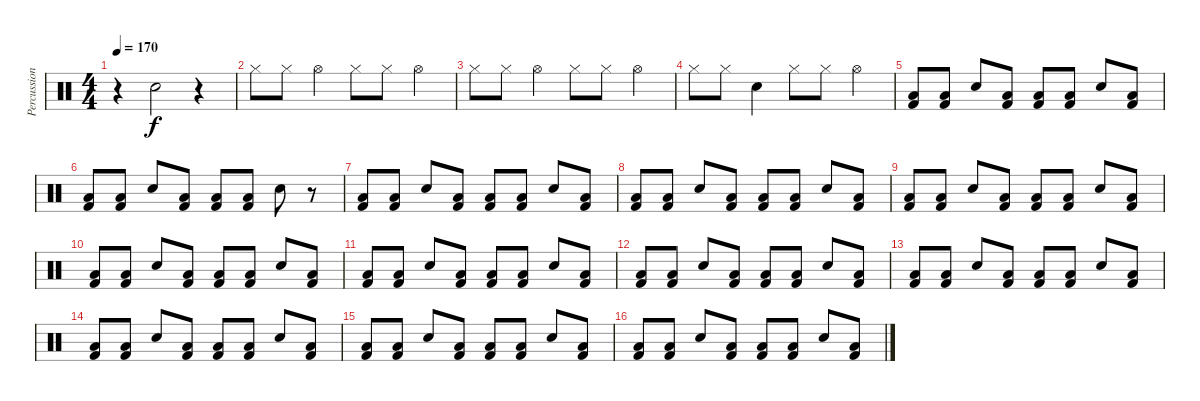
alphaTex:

\track ("Percussion" "Percussion") {instrument percussion}
\staff {score}
\articulation defaults
\ts (4 4)
\tempo 170
\clef neutral
\ks c
r.4{dy f} "Electric Snare (hit)".2 r.4 |
"Hi-Hat (closed)".8 "Hi-Hat (closed)".8 "Hi-Hat (open)".4 "Hi-Hat (closed)".8 "Hi-Hat (closed)".8 "Hi-Hat (open)".4 |
"Hi-Hat (closed)".8 "Hi-Hat (closed)".8 "Hi-Hat (open)".4 "Hi-Hat (closed)".8 "Hi-Hat (closed)".8 "Hi-Hat (open)".4 |
"Hi-Hat (closed)".8 "Hi-Hat (closed)".8 "Electric Snare (hit)".4 "Hi-Hat (closed)".8 "Hi-Hat (closed)".8 "Hi-Hat (open)".4 |
("Low Floor Tom (hit)" "Kick (hit) 2").8 ("Low Floor Tom (hit)" "Kick (hit) 2").8 "Snare (hit) 2".8 ("Low Floor Tom (hit)" "Kick (hit) 2").8 ("Low Floor Tom (hit)" "Kick (hit) 2").8 ("Low Floor Tom (hit)" "Kick (hit) 2").8 "Snare (hit) 2".8 ("Low Floor Tom (hit)" "Kick (hit) 2").8 |
("Low Floor Tom (hit)" "Kick (hit) 2").8 ("Low Floor Tom (hit)" "Kick (hit) 2").8 "Snare (hit) 2".8 ("Low Floor Tom (hit)" "Kick (hit) 2").8 ("Low Floor Tom (hit)" "Kick (hit) 2").8 ("Low Floor Tom (hit)" "Kick (hit) 2").8 "Snare (hit) 2".8 r.8 |
("Low Floor Tom (hit)" "Kick (hit) 2").8 ("Low Floor Tom (hit)" "Kick (hit) 2").8 "Snare (hit) 2".8 ("Low Floor Tom (hit)" "Kick (hit) 2").8 ("Low Floor Tom (hit)" "Kick (hit) 2").8 ("Low Floor Tom (hit)" "Kick (hit) 2").8 "Snare (hit) 2".8 ("Low Floor Tom (hit)" "Kick (hit) 2").8 |
("Low Floor Tom (hit)" "Kick (hit) 2").8 ("Low Floor Tom (hit)" "Kick (hit) 2").8 "Snare (hit) 2".8 ("Low Floor Tom (hit)" "Kick (hit) 2").8 ("Low Floor Tom (hit)" "Kick (hit) 2").8 ("Low Floor Tom (hit)" "Kick (hit) 2").8 "Snare (hit) 2".8 ("Low Floor Tom (hit)" "Kick (hit) 2").8 |
("Low Floor Tom (hit)" "Kick (hit) 2").8 ("Low Floor Tom (hit)" "Kick (hit) 2").8 "Snare (hit) 2".8 ("Low Floor Tom (hit)" "Kick (hit) 2").8 ("Low Floor Tom (hit)" "Kick (hit) 2").8 ("Low Floor Tom (hit)" "Kick (hit) 2").8 "Snare (hit) 2".8 ("Low Floor Tom (hit)" "Kick (hit) 2").8 |
("Low Floor Tom (hit)" "Kick (hit) 2").8 ("Low Floor Tom (hit)" "Kick (hit) 2").8 "Snare (hit) 2".8 ("Low Floor Tom (hit)" "Kick (hit) 2").8 ("Low Floor Tom (hit)" "Kick (hit) 2").8 ("Low Floor Tom (hit)" "Kick (hit) 2").8 "Snare (hit) 2".8 ("Low Floor Tom (hit)" "Kick (hit) 2").8 |
("Low Floor Tom (hit)" "Kick (hit) 2").8 ("Low Floor Tom (hit)" "Kick (hit) 2").8 "Snare (hit) 2".8 ("Low Floor Tom (hit)" "Kick (hit) 2").8 ("Low Floor Tom (hit)" "Kick (hit) 2").8 ("Low Floor Tom (hit)" "Kick (hit) 2").8 "Snare (hit) 2".8 ("Low Floor Tom (hit)" "Kick (hit) 2").8 |
("Low Floor Tom (hit)" "Kick (hit) 2").8 ("Low Floor Tom (hit)" "Kick (hit) 2").8 "Snare (hit) 2".8 ("Low Floor Tom (hit)" "Kick (hit) 2").8 ("Low Floor Tom (hit)" "Kick (hit) 2").8 ("Low Floor Tom (hit)" "Kick (hit) 2").8 "Snare (hit) 2".8 ("Low Floor Tom (hit)" "Kick (hit) 2").8 |
("Low Floor Tom (hit)" "Kick (hit) 2").8 ("Low Floor Tom (hit)" "Kick (hit) 2").8 "Snare (hit) 2".8 ("Low Floor Tom (hit)" "Kick (hit) 2").8 ("Low Floor Tom (hit)" "Kick (hit) 2").8 ("Low Floor Tom (hit)" "Kick (hit) 2").8 "Snare (hit) 2".8 ("Low Floor Tom (hit)" "Kick (hit) 2").8 |
("Low Floor Tom (hit)" "Kick (hit) 2").8 ("Low Floor Tom (hit)" "Kick (hit) 2").8 "Snare (hit) 2".8 ("Low Floor Tom (hit)" "Kick (hit) 2").8 ("Low Floor Tom (hit)" "Kick (hit) 2").8 ("Low Floor Tom (hit)" "Kick (hit) 2").8 "Snare (hit) 2".8 ("Low Floor Tom (hit)" "Kick (hit) 2").8 |
("Low Floor Tom (hit)" "Kick (hit) 2").8 ("Low Floor Tom (hit)" "Kick (hit) 2").8 "Snare (hit) 2".8 ("Low Floor Tom (hit)" "Kick (hit) 2").8 ("Low Floor Tom (hit)" "Kick (hit) 2").8 ("Low Floor Tom (hit)" "Kick (hit) 2").8 "Snare (hit) 2".8 ("Low Floor Tom (hit)" "Kick (hit) 2").8 |
("Low Floor Tom (hit)" "Kick (hit) 2").8 ("Low Floor Tom (hit)" "Kick (hit) 2").8 "Snare (hit) 2".8 ("Low Floor Tom (hit)" "Kick (hit) 2").8 ("Low Floor Tom (hit)" "Kick (hit) 2").8 ("Low Floor Tom (hit)" "Kick (hit) 2").8 "Snare (hit) 2".8 ("Low Floor Tom (hit)" "Kick (hit) 2").8
